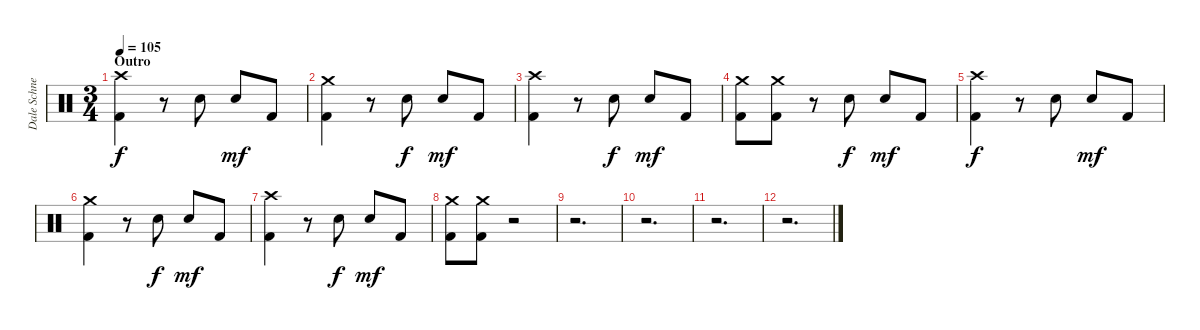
\track ("Dale Schnettler (Drums)" "Dale Schne") {instrument percussion}
\staff {score}
\articulation defaults
\ts (3 4)
\section ("" "Outro")
\tempo 105
\clef neutral
\ks c
("Crash high (hit)" "Kick (hit) 2").4{dy f} r.8 "Electric Snare (hit)".8 "Electric Snare (hit)".8{dy mf} "Kick (hit) 2".8 |
("Crash medium (hit)" "Kick (hit) 2").4 r.8 "Electric Snare (hit)".8{dy f} "Electric Snare (hit)".8{dy mf} "Kick (hit) 2".8 |
("Crash high (hit)" "Kick (hit) 2").4 r.8 "Electric Snare (hit)".8{dy f} "Electric Snare (hit)".8{dy mf} "Kick (hit) 2".8 |
("Crash medium (hit)" "Kick (hit) 2").8 ("Crash medium (hit)" "Kick (hit) 2").8 r.8 "Electric Snare (hit)".8{dy f} "Electric Snare (hit)".8{dy mf} "Kick (hit) 2".8 |
("Crash high (hit)" "Kick (hit) 2").4{dy f} r.8 "Electric Snare (hit)".8 "Electric Snare (hit)".8{dy mf} "Kick (hit) 2".8 |
("Crash medium (hit)" "Kick (hit) 2").4 r.8 "Electric Snare (hit)".8{dy f} "Electric Snare (hit)".8{dy mf} "Kick (hit) 2".8 |
("Crash high (hit)" "Kick (hit) 2").4 r.8 "Electric Snare (hit)".8{dy f} "Electric Snare (hit)".8{dy mf} "Kick (hit) 2".8 |
("Crash medium (hit)" "Kick (hit) 2").8 ("Crash medium (hit)" "Kick (hit) 2").8 r.2 |
r.2{d} |
r.2{d} |
r.2{d} |
r.2{d}
